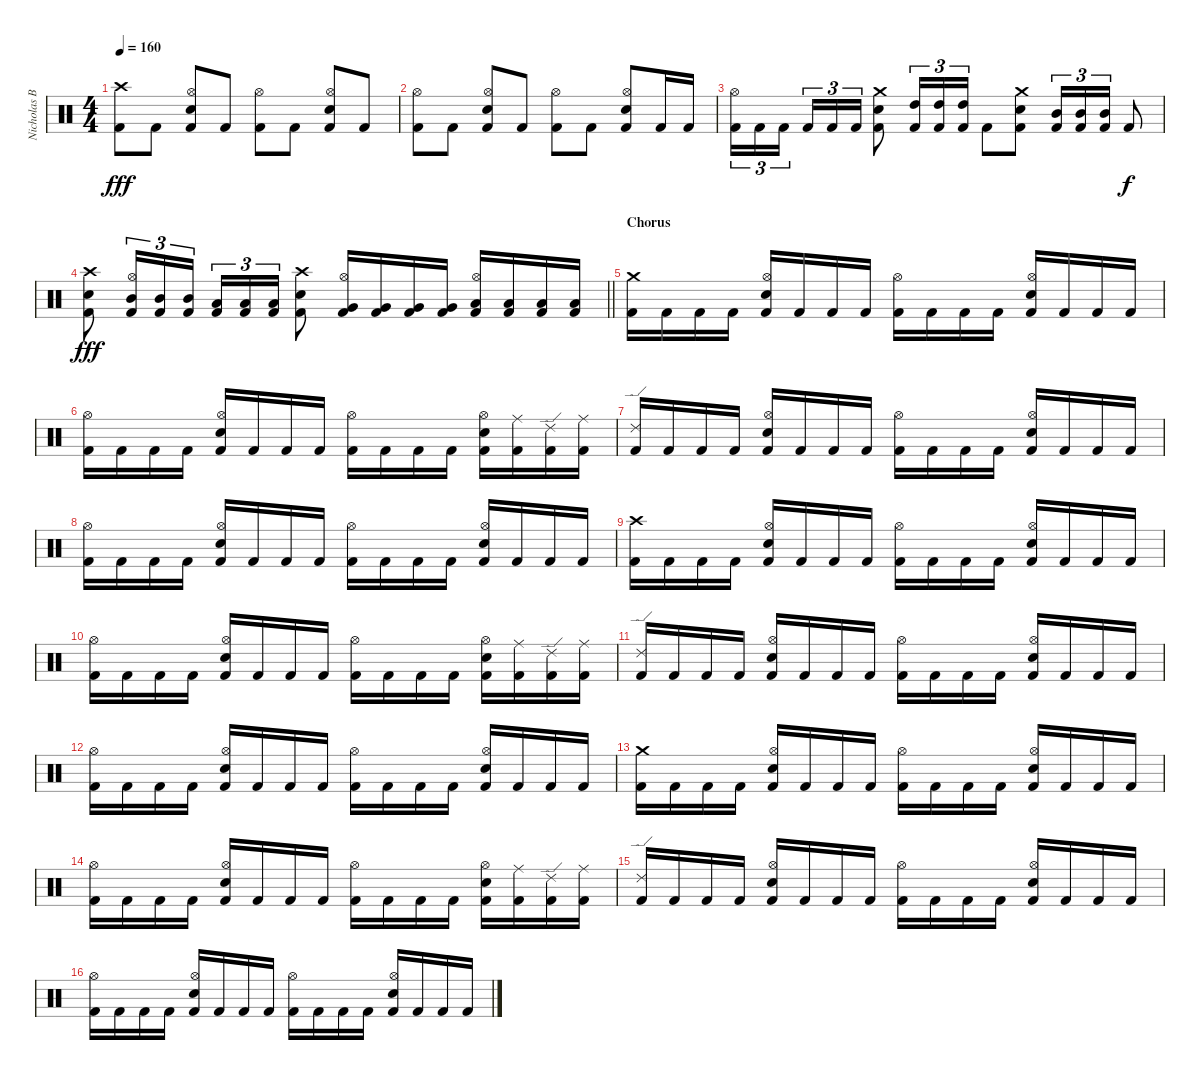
\track ("Nicholas Barker" "Nicholas B") {instrument percussion}
\staff {score}
\articulation defaults
\ts (4 4)
\tempo 160
\clef neutral
\ks c
("Crash high (hit)" "Kick (hit) 2").8{dy fff} "Kick (hit) 2".8 ("Hi-Hat (open)" "Snare (hit) 2" "Kick (hit) 2").8 "Kick (hit) 2".8 ("Hi-Hat (open)" "Kick (hit) 2").8 "Kick (hit) 2".8 ("Hi-Hat (open)" "Snare (hit) 2" "Kick (hit) 2").8 "Kick (hit) 2".8 |
("Hi-Hat (open)" "Kick (hit) 2").8 "Kick (hit) 2".8 ("Hi-Hat (open)" "Snare (hit) 2" "Kick (hit) 2").8 "Kick (hit) 2".8 ("Hi-Hat (open)" "Kick (hit) 2").8 "Kick (hit) 2".8 ("Hi-Hat (open)" "Snare (hit) 2" "Kick (hit) 2").8 "Kick (hit) 2".16 "Kick (hit) 2".16 |
("Hi-Hat (open)" "Kick (hit) 2").16{tu (3 2)} "Kick (hit) 2".16{tu (3 2)} "Kick (hit) 2".16{tu (3 2) beam splitsecondary} "Kick (hit) 2".16{tu (3 2)} "Kick (hit) 2".16{tu (3 2)} "Kick (hit) 2".16{tu (3 2)} ("Crash medium (hit)" "Snare (hit) 2" "Kick (hit) 2").8 ("High Tom (hit)" "Kick (hit) 2").16{tu (3 2)} ("High Tom (hit)" "Kick (hit) 2").16{tu (3 2)} ("High Tom (hit)" "Kick (hit) 2").16{tu (3 2)} "Kick (hit) 2".8 ("Crash medium (hit)" "Snare (hit) 2" "Kick (hit) 2").8 ("Mid Tom (hit)" "Kick (hit) 2").16{tu (3 2)} ("Mid Tom (hit)" "Kick (hit) 2").16{tu (3 2)} ("Mid Tom (hit)" "Kick (hit) 2").16{tu (3 2)} "Kick (hit) 2".8{dy f} |
\barLineRight lightlight
("Crash high (hit)" "Snare (hit) 2" "Kick (hit) 2").8{dy fff} ("Hi-Hat (open)" "Mid Tom (hit)" "Kick (hit) 2").16{tu (3 2)} ("Mid Tom (hit)" "Kick (hit) 2").16{tu (3 2)} ("Mid Tom (hit)" "Kick (hit) 2").16{tu (3 2)} ("Low Tom (hit)" "Kick (hit) 2").16{tu (3 2)} ("Low Tom (hit)" "Kick (hit) 2").16{tu (3 2)} ("Low Tom (hit)" "Kick (hit) 2").16{tu (3 2)} ("Crash high (hit)" "Snare (hit) 2" "Kick (hit) 2").8 ("Hi-Hat (open)" "Very Low Tom (hit)" "Kick (hit) 2").16 ("Very Low Tom (hit)" "Kick (hit) 2").16 ("Very Low Tom (hit)" "Kick (hit) 2").16 ("Very Low Tom (hit)" "Kick (hit) 2").16 ("Hi-Hat (open)" "Low Floor Tom (hit)" "Kick (hit) 2").16 ("Low Floor Tom (hit)" "Kick (hit) 2").16 ("Low Floor Tom (hit)" "Kick (hit) 2").16 ("Low Floor Tom (hit)" "Kick (hit) 2").16 |
\section ("" "Chorus")
("Crash medium (hit)" "Kick (hit) 2").16 "Kick (hit) 2".16 "Kick (hit) 2".16 "Kick (hit) 2".16 ("Hi-Hat (open)" "Snare (hit) 2" "Kick (hit) 2").16 "Kick (hit) 2".16 "Kick (hit) 2".16 "Kick (hit) 2".16 ("Hi-Hat (open)" "Kick (hit) 2").16 "Kick (hit) 2".16 "Kick (hit) 2".16 "Kick (hit) 2".16 ("Hi-Hat (open)" "Snare (hit) 2" "Kick (hit) 2").16 "Kick (hit) 2".16 "Kick (hit) 2".16 "Kick (hit) 2".16 |
("Hi-Hat (open)" "Kick (hit) 2").16 "Kick (hit) 2".16 "Kick (hit) 2".16 "Kick (hit) 2".16 ("Hi-Hat (open)" "Snare (hit) 2" "Kick (hit) 2").16 "Kick (hit) 2".16 "Kick (hit) 2".16 "Kick (hit) 2".16 ("Hi-Hat (open)" "Kick (hit) 2").16 "Kick (hit) 2".16 "Kick (hit) 2".16 "Kick (hit) 2".16 ("Hi-Hat (open)" "Snare (hit) 2" "Kick (hit) 2").16 ("Ride (middle)" "Kick (hit) 2").16 ("Ride (edge) 2" "Kick (hit) 2").16 ("Ride (middle)" "Kick (hit) 2").16 |
("Ride (edge) 2" "Kick (hit) 2").16 "Kick (hit) 2".16 "Kick (hit) 2".16 "Kick (hit) 2".16 ("Hi-Hat (open)" "Snare (hit) 2" "Kick (hit) 2").16 "Kick (hit) 2".16 "Kick (hit) 2".16 "Kick (hit) 2".16 ("Hi-Hat (open)" "Kick (hit) 2").16 "Kick (hit) 2".16 "Kick (hit) 2".16 "Kick (hit) 2".16 ("Hi-Hat (open)" "Snare (hit) 2" "Kick (hit) 2").16 "Kick (hit) 2".16 "Kick (hit) 2".16 "Kick (hit) 2".16 |
("Hi-Hat (open)" "Kick (hit) 2").16 "Kick (hit) 2".16 "Kick (hit) 2".16 "Kick (hit) 2".16 ("Hi-Hat (open)" "Snare (hit) 2" "Kick (hit) 2").16 "Kick (hit) 2".16 "Kick (hit) 2".16 "Kick (hit) 2".16 ("Hi-Hat (open)" "Kick (hit) 2").16 "Kick (hit) 2".16 "Kick (hit) 2".16 "Kick (hit) 2".16 ("Hi-Hat (open)" "Snare (hit) 2" "Kick (hit) 2").16 "Kick (hit) 2".16 "Kick (hit) 2".16 "Kick (hit) 2".16 |
("Crash high (hit)" "Kick (hit) 2").16 "Kick (hit) 2".16 "Kick (hit) 2".16 "Kick (hit) 2".16 ("Hi-Hat (open)" "Snare (hit) 2" "Kick (hit) 2").16 "Kick (hit) 2".16 "Kick (hit) 2".16 "Kick (hit) 2".16 ("Hi-Hat (open)" "Kick (hit) 2").16 "Kick (hit) 2".16 "Kick (hit) 2".16 "Kick (hit) 2".16 ("Hi-Hat (open)" "Snare (hit) 2" "Kick (hit) 2").16 "Kick (hit) 2".16 "Kick (hit) 2".16 "Kick (hit) 2".16 |
("Hi-Hat (open)" "Kick (hit) 2").16 "Kick (hit) 2".16 "Kick (hit) 2".16 "Kick (hit) 2".16 ("Hi-Hat (open)" "Snare (hit) 2" "Kick (hit) 2").16 "Kick (hit) 2".16 "Kick (hit) 2".16 "Kick (hit) 2".16 ("Hi-Hat (open)" "Kick (hit) 2").16 "Kick (hit) 2".16 "Kick (hit) 2".16 "Kick (hit) 2".16 ("Hi-Hat (open)" "Snare (hit) 2" "Kick (hit) 2").16 ("Ride (middle)" "Kick (hit) 2").16 ("Ride (edge) 2" "Kick (hit) 2").16 ("Ride (middle)" "Kick (hit) 2").16 |
("Ride (edge) 2" "Kick (hit) 2").16 "Kick (hit) 2".16 "Kick (hit) 2".16 "Kick (hit) 2".16 ("Hi-Hat (open)" "Snare (hit) 2" "Kick (hit) 2").16 "Kick (hit) 2".16 "Kick (hit) 2".16 "Kick (hit) 2".16 ("Hi-Hat (open)" "Kick (hit) 2").16 "Kick (hit) 2".16 "Kick (hit) 2".16 "Kick (hit) 2".16 ("Hi-Hat (open)" "Snare (hit) 2" "Kick (hit) 2").16 "Kick (hit) 2".16 "Kick (hit) 2".16 "Kick (hit) 2".16 |
("Hi-Hat (open)" "Kick (hit) 2").16 "Kick (hit) 2".16 "Kick (hit) 2".16 "Kick (hit) 2".16 ("Hi-Hat (open)" "Snare (hit) 2" "Kick (hit) 2").16 "Kick (hit) 2".16 "Kick (hit) 2".16 "Kick (hit) 2".16 ("Hi-Hat (open)" "Kick (hit) 2").16 "Kick (hit) 2".16 "Kick (hit) 2".16 "Kick (hit) 2".16 ("Hi-Hat (open)" "Snare (hit) 2" "Kick (hit) 2").16 "Kick (hit) 2".16 "Kick (hit) 2".16 "Kick (hit) 2".16 |
("Crash medium (hit)" "Kick (hit) 2").16 "Kick (hit) 2".16 "Kick (hit) 2".16 "Kick (hit) 2".16 ("Hi-Hat (open)" "Snare (hit) 2" "Kick (hit) 2").16 "Kick (hit) 2".16 "Kick (hit) 2".16 "Kick (hit) 2".16 ("Hi-Hat (open)" "Kick (hit) 2").16 "Kick (hit) 2".16 "Kick (hit) 2".16 "Kick (hit) 2".16 ("Hi-Hat (open)" "Snare (hit) 2" "Kick (hit) 2").16 "Kick (hit) 2".16 "Kick (hit) 2".16 "Kick (hit) 2".16 |
("Hi-Hat (open)" "Kick (hit) 2").16 "Kick (hit) 2".16 "Kick (hit) 2".16 "Kick (hit) 2".16 ("Hi-Hat (open)" "Snare (hit) 2" "Kick (hit) 2").16 "Kick (hit) 2".16 "Kick (hit) 2".16 "Kick (hit) 2".16 ("Hi-Hat (open)" "Kick (hit) 2").16 "Kick (hit) 2".16 "Kick (hit) 2".16 "Kick (hit) 2".16 ("Hi-Hat (open)" "Snare (hit) 2" "Kick (hit) 2").16 ("Ride (middle)" "Kick (hit) 2").16 ("Ride (edge) 2" "Kick (hit) 2").16 ("Ride (middle)" "Kick (hit) 2").16 |
("Ride (edge) 2" "Kick (hit) 2").16 "Kick (hit) 2".16 "Kick (hit) 2".16 "Kick (hit) 2".16 ("Hi-Hat (open)" "Snare (hit) 2" "Kick (hit) 2").16 "Kick (hit) 2".16 "Kick (hit) 2".16 "Kick (hit) 2".16 ("Hi-Hat (open)" "Kick (hit) 2").16 "Kick (hit) 2".16 "Kick (hit) 2".16 "Kick (hit) 2".16 ("Hi-Hat (open)" "Snare (hit) 2" "Kick (hit) 2").16 "Kick (hit) 2".16 "Kick (hit) 2".16 "Kick (hit) 2".16 |
("Hi-Hat (open)" "Kick (hit) 2").16 "Kick (hit) 2".16 "Kick (hit) 2".16 "Kick (hit) 2".16 ("Hi-Hat (open)" "Snare (hit) 2" "Kick (hit) 2").16 "Kick (hit) 2".16 "Kick (hit) 2".16 "Kick (hit) 2".16 ("Hi-Hat (open)" "Kick (hit) 2").16 "Kick (hit) 2".16 "Kick (hit) 2".16 "Kick (hit) 2".16 ("Hi-Hat (open)" "Snare (hit) 2" "Kick (hit) 2").16 "Kick (hit) 2".16 "Kick (hit) 2".16 "Kick (hit) 2".16
